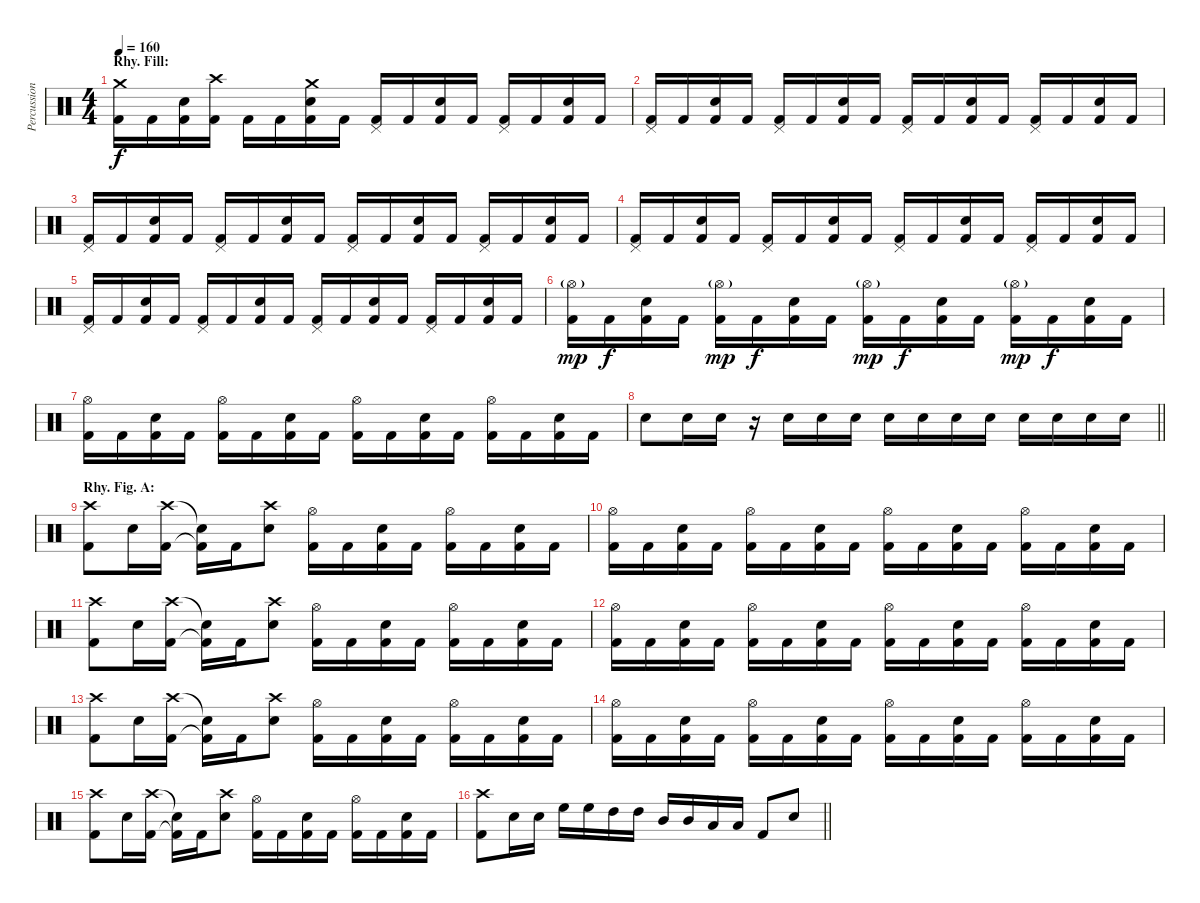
\track ("Percussion" "Percussion") {instrument percussion}
\staff {score}
\articulation defaults
\ts (4 4)
\section ("" "Rhy. Fill:")
\tempo 160
\clef neutral
\ks c
("Crash medium (hit)" "Kick (hit) 2").16{dy f} "Kick (hit) 2".16 ("Snare (hit) 2" "Kick (hit) 2").16 ("Crash high (hit)" "Kick (hit) 2").16 "Kick (hit) 2".16 "Kick (hit) 2".16 ("Crash medium (hit)" "Snare (hit) 2" "Kick (hit) 2").16 "Kick (hit) 2".16 ("Pedal Hi-Hat (hit)" "Kick (hit) 2").16 "Kick (hit) 2".16 ("Snare (hit) 2" "Kick (hit) 2").16 "Kick (hit) 2".16 ("Pedal Hi-Hat (hit)" "Kick (hit) 2").16 "Kick (hit) 2".16 ("Snare (hit) 2" "Kick (hit) 2").16 "Kick (hit) 2".16 |
("Pedal Hi-Hat (hit)" "Kick (hit) 2").16 "Kick (hit) 2".16 ("Snare (hit) 2" "Kick (hit) 2").16 "Kick (hit) 2".16 ("Pedal Hi-Hat (hit)" "Kick (hit) 2").16 "Kick (hit) 2".16 ("Snare (hit) 2" "Kick (hit) 2").16 "Kick (hit) 2".16 ("Pedal Hi-Hat (hit)" "Kick (hit) 2").16 "Kick (hit) 2".16 ("Snare (hit) 2" "Kick (hit) 2").16 "Kick (hit) 2".16 ("Pedal Hi-Hat (hit)" "Kick (hit) 2").16 "Kick (hit) 2".16 ("Snare (hit) 2" "Kick (hit) 2").16 "Kick (hit) 2".16 |
("Pedal Hi-Hat (hit)" "Kick (hit) 2").16 "Kick (hit) 2".16 ("Snare (hit) 2" "Kick (hit) 2").16 "Kick (hit) 2".16 ("Pedal Hi-Hat (hit)" "Kick (hit) 2").16 "Kick (hit) 2".16 ("Snare (hit) 2" "Kick (hit) 2").16 "Kick (hit) 2".16 ("Pedal Hi-Hat (hit)" "Kick (hit) 2").16 "Kick (hit) 2".16 ("Snare (hit) 2" "Kick (hit) 2").16 "Kick (hit) 2".16 ("Pedal Hi-Hat (hit)" "Kick (hit) 2").16 "Kick (hit) 2".16 ("Snare (hit) 2" "Kick (hit) 2").16 "Kick (hit) 2".16 |
("Pedal Hi-Hat (hit)" "Kick (hit) 2").16 "Kick (hit) 2".16 ("Snare (hit) 2" "Kick (hit) 2").16 "Kick (hit) 2".16 ("Pedal Hi-Hat (hit)" "Kick (hit) 2").16 "Kick (hit) 2".16 ("Snare (hit) 2" "Kick (hit) 2").16 "Kick (hit) 2".16 ("Pedal Hi-Hat (hit)" "Kick (hit) 2").16 "Kick (hit) 2".16 ("Snare (hit) 2" "Kick (hit) 2").16 "Kick (hit) 2".16 ("Pedal Hi-Hat (hit)" "Kick (hit) 2").16 "Kick (hit) 2".16 ("Snare (hit) 2" "Kick (hit) 2").16 "Kick (hit) 2".16 |
("Pedal Hi-Hat (hit)" "Kick (hit) 2").16 "Kick (hit) 2".16 ("Snare (hit) 2" "Kick (hit) 2").16 "Kick (hit) 2".16 ("Pedal Hi-Hat (hit)" "Kick (hit) 2").16 "Kick (hit) 2".16 ("Snare (hit) 2" "Kick (hit) 2").16 "Kick (hit) 2".16 ("Pedal Hi-Hat (hit)" "Kick (hit) 2").16 "Kick (hit) 2".16 ("Snare (hit) 2" "Kick (hit) 2").16 "Kick (hit) 2".16 ("Pedal Hi-Hat (hit)" "Kick (hit) 2").16 "Kick (hit) 2".16 ("Snare (hit) 2" "Kick (hit) 2").16 "Kick (hit) 2".16 |
("Hi-Hat (open)"{g} "Kick (hit) 2").16{dy mp} "Kick (hit) 2".16{dy f} ("Snare (hit) 2" "Kick (hit) 2").16 "Kick (hit) 2".16 ("Hi-Hat (open)"{g} "Kick (hit) 2").16{dy mp} "Kick (hit) 2".16{dy f} ("Snare (hit) 2" "Kick (hit) 2").16 "Kick (hit) 2".16 ("Hi-Hat (open)"{g} "Kick (hit) 2").16{dy mp} "Kick (hit) 2".16{dy f} ("Snare (hit) 2" "Kick (hit) 2").16 "Kick (hit) 2".16 ("Hi-Hat (open)"{g} "Kick (hit) 2").16{dy mp} "Kick (hit) 2".16{dy f} ("Snare (hit) 2" "Kick (hit) 2").16 "Kick (hit) 2".16 |
("Hi-Hat (open)" "Kick (hit) 2").16 "Kick (hit) 2".16 ("Snare (hit) 2" "Kick (hit) 2").16 "Kick (hit) 2".16 ("Hi-Hat (open)" "Kick (hit) 2").16 "Kick (hit) 2".16 ("Snare (hit) 2" "Kick (hit) 2").16 "Kick (hit) 2".16 ("Hi-Hat (open)" "Kick (hit) 2").16 "Kick (hit) 2".16 ("Snare (hit) 2" "Kick (hit) 2").16 "Kick (hit) 2".16 ("Hi-Hat (open)" "Kick (hit) 2").16 "Kick (hit) 2".16 ("Snare (hit) 2" "Kick (hit) 2").16 "Kick (hit) 2".16 |
\barLineRight lightlight "Snare (hit) 2".8 "Snare (hit) 2".16 "Snare (hit) 2".16
r.16 "Snare (hit) 2".16 "Snare (hit) 2".16 "Snare (hit) 2".16 "Snare (hit) 2".16 "Snare (hit) 2".16 "Snare (hit) 2".16 "Snare (hit) 2".16 "Snare (hit) 2".16 "Snare (hit) 2".16 "Snare (hit) 2".16 "Snare (hit) 2".16 |
\section ("" "Rhy. Fig. A:")
("Crash high (hit)" "Kick (hit) 2").8 "Snare (hit) 2".16 ("Crash high (hit)" "Kick (hit) 2").16 ("Snare (hit)"{t} "Kick (hit) 2"{t}).16 "Kick (hit) 2".16 ("Crash high (hit)" "Snare (hit) 2").8 ("Hi-Hat (open)" "Kick (hit) 2").16 "Kick (hit) 2".16 ("Snare (hit) 2" "Kick (hit) 2").16 "Kick (hit) 2".16 ("Hi-Hat (open)" "Kick (hit) 2").16 "Kick (hit) 2".16 ("Snare (hit) 2" "Kick (hit) 2").16 "Kick (hit) 2".16 |
("Hi-Hat (open)" "Kick (hit) 2").16 "Kick (hit) 2".16 ("Snare (hit) 2" "Kick (hit) 2").16 "Kick (hit) 2".16 ("Hi-Hat (open)" "Kick (hit) 2").16 "Kick (hit) 2".16 ("Snare (hit) 2" "Kick (hit) 2").16 "Kick (hit) 2".16 ("Hi-Hat (open)" "Kick (hit) 2").16 "Kick (hit) 2".16 ("Snare (hit) 2" "Kick (hit) 2").16 "Kick (hit) 2".16 ("Hi-Hat (open)" "Kick (hit) 2").16 "Kick (hit) 2".16 ("Snare (hit) 2" "Kick (hit) 2").16 "Kick (hit) 2".16 |
("Crash high (hit)" "Kick (hit) 2").8 "Snare (hit) 2".16 ("Crash high (hit)" "Kick (hit) 2").16 ("Snare (hit)"{t} "Kick (hit) 2"{t}).16 "Kick (hit) 2".16 ("Crash high (hit)" "Snare (hit) 2").8 ("Hi-Hat (open)" "Kick (hit) 2").16 "Kick (hit) 2".16 ("Snare (hit) 2" "Kick (hit) 2").16 "Kick (hit) 2".16 ("Hi-Hat (open)" "Kick (hit) 2").16 "Kick (hit) 2".16 ("Snare (hit) 2" "Kick (hit) 2").16 "Kick (hit) 2".16 |
("Hi-Hat (open)" "Kick (hit) 2").16 "Kick (hit) 2".16 ("Snare (hit) 2" "Kick (hit) 2").16 "Kick (hit) 2".16 ("Hi-Hat (open)" "Kick (hit) 2").16 "Kick (hit) 2".16 ("Snare (hit) 2" "Kick (hit) 2").16 "Kick (hit) 2".16 ("Hi-Hat (open)" "Kick (hit) 2").16 "Kick (hit) 2".16 ("Snare (hit) 2" "Kick (hit) 2").16 "Kick (hit) 2".16 ("Hi-Hat (open)" "Kick (hit) 2").16 "Kick (hit) 2".16 ("Snare (hit) 2" "Kick (hit) 2").16 "Kick (hit) 2".16 |
("Crash high (hit)" "Kick (hit) 2").8 "Snare (hit) 2".16 ("Crash high (hit)" "Kick (hit) 2").16 ("Snare (hit)"{t} "Kick (hit) 2"{t}).16 "Kick (hit) 2".16 ("Crash high (hit)" "Snare (hit) 2").8 ("Hi-Hat (open)" "Kick (hit) 2").16 "Kick (hit) 2".16 ("Snare (hit) 2" "Kick (hit) 2").16 "Kick (hit) 2".16 ("Hi-Hat (open)" "Kick (hit) 2").16 "Kick (hit) 2".16 ("Snare (hit) 2" "Kick (hit) 2").16 "Kick (hit) 2".16 |
("Hi-Hat (open)" "Kick (hit) 2").16 "Kick (hit) 2".16 ("Snare (hit) 2" "Kick (hit) 2").16 "Kick (hit) 2".16 ("Hi-Hat (open)" "Kick (hit) 2").16 "Kick (hit) 2".16 ("Snare (hit) 2" "Kick (hit) 2").16 "Kick (hit) 2".16 ("Hi-Hat (open)" "Kick (hit) 2").16 "Kick (hit) 2".16 ("Snare (hit) 2" "Kick (hit) 2").16 "Kick (hit) 2".16 ("Hi-Hat (open)" "Kick (hit) 2").16 "Kick (hit) 2".16 ("Snare (hit) 2" "Kick (hit) 2").16 "Kick (hit) 2".16 |
("Crash high (hit)" "Kick (hit) 2").8 "Snare (hit) 2".16 ("Crash high (hit)" "Kick (hit) 2").16 ("Snare (hit)"{t} "Kick (hit) 2"{t}).16 "Kick (hit) 2".16 ("Crash high (hit)" "Snare (hit) 2").8 ("Hi-Hat (open)" "Kick (hit) 2").16 "Kick (hit) 2".16 ("Snare (hit) 2" "Kick (hit) 2").16 "Kick (hit) 2".16 ("Hi-Hat (open)" "Kick (hit) 2").16 "Kick (hit) 2".16 ("Snare (hit) 2" "Kick (hit) 2").16 "Kick (hit) 2".16 |
\barLineRight lightlight
("Crash high (hit)" "Kick (hit) 2").8 "Snare (hit) 2".16 "Snare (hit) 2".16 "High Floor Tom (hit)".16 "High Floor Tom (hit)".16 "High Tom (hit)".16 "High Tom (hit)".16 "Mid Tom (hit)".16 "Mid Tom (hit)".16 "Low Tom (hit)".16 "Low Tom (hit)".16 "Kick (hit) 2".8 "Snare (hit) 2".8
